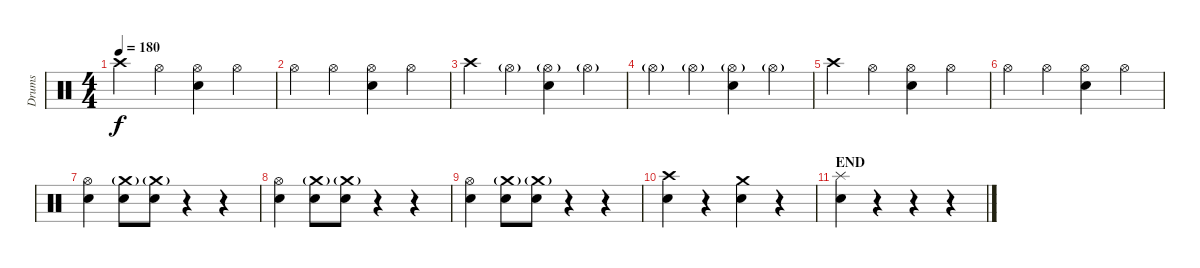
\track ("Drums" "Drums") {instrument percussion}
\staff {score}
\articulation defaults
\ts (4 4)
\tempo 180
\clef neutral
\ks c "Crash high (hit)".4{dy f} "Hi-Hat (open)".4
("Hi-Hat (open)" "Electric Snare (hit)").4 "Hi-Hat (open)".4 |
"Hi-Hat (open)".4 "Hi-Hat (open)".4 ("Hi-Hat (open)" "Electric Snare (hit)").4 "Hi-Hat (open)".4 |
"Crash high (hit)".4 "Hi-Hat (open)"{g}.4 ("Hi-Hat (open)"{g} "Electric Snare (hit)").4 "Hi-Hat (open)"{g}.4 |
"Hi-Hat (open)"{g}.4 "Hi-Hat (open)"{g}.4 ("Hi-Hat (open)"{g} "Electric Snare (hit)").4 "Hi-Hat (open)"{g}.4 |
"Crash high (hit)".4 "Hi-Hat (open)".4 ("Hi-Hat (open)" "Electric Snare (hit)").4 "Hi-Hat (open)".4 |
"Hi-Hat (open)".4 "Hi-Hat (open)".4 ("Hi-Hat (open)" "Electric Snare (hit)").4 "Hi-Hat (open)".4 |
("Hi-Hat (open)" "Electric Snare (hit)").4 ("Crash medium (hit)"{g} "Electric Snare (hit)").8 ("Crash medium (hit)"{g} "Electric Snare (hit)").8 r.4 r.4 |
("Hi-Hat (open)" "Electric Snare (hit)").4 ("Crash medium (hit)"{g} "Electric Snare (hit)").8 ("Crash medium (hit)"{g} "Electric Snare (hit)").8 r.4 r.4 |
("Hi-Hat (open)" "Electric Snare (hit)").4 ("Crash medium (hit)"{g} "Electric Snare (hit)").8 ("Crash medium (hit)"{g} "Electric Snare (hit)").8 r.4 r.4 |
("Crash high (hit)" "Electric Snare (hit)").4 r.4 ("Crash medium (hit)" "Electric Snare (hit)").4 r.4 |
\section ("" "END")
("Splash (hit)" "Electric Snare (hit)").4 r.4 r.4 r.4
